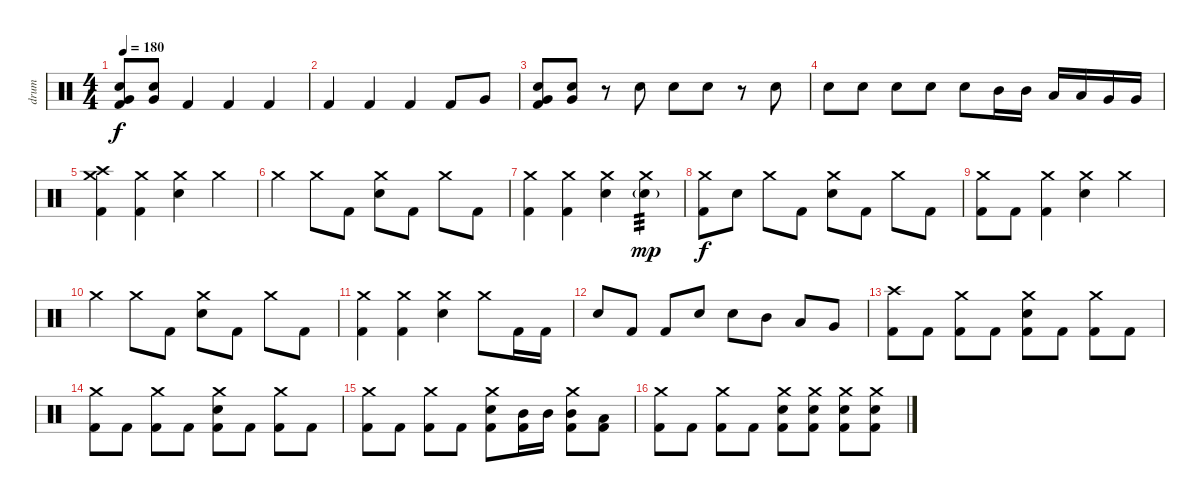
\track ("drum" "drum") {instrument percussion}
\staff {score}
\articulation defaults
\ts (4 4)
\tempo 180
\clef neutral
\ks c
("Snare (hit) 2" "Very Low Tom (hit)" "Kick (hit) 2").8{dy f} ("Snare (hit) 2" "Very Low Tom (hit)").8 "Kick (hit) 2".4 "Kick (hit) 2".4 "Kick (hit) 2".4 |
"Kick (hit) 2".4 "Kick (hit) 2".4 "Kick (hit) 2".4 "Kick (hit) 2".8 "Very Low Tom (hit)".8 |
("Snare (hit) 2" "Very Low Tom (hit)" "Kick (hit) 2").8 ("Snare (hit) 2" "Very Low Tom (hit)").8 r.8 "Snare (hit) 2".8 "Snare (hit) 2".8 "Snare (hit) 2".8 r.8 "Snare (hit) 2".8 |
"Snare (hit) 2".8 "Snare (hit) 2".8 "Snare (hit) 2".8 "Snare (hit) 2".8 "Snare (hit) 2".8 "Mid Tom (hit)".16 "Mid Tom (hit)".16 "Low Tom (hit)".16 "Low Tom (hit)".16 "Very Low Tom (hit)".16 "Very Low Tom (hit)".16 |
("Crash high (hit)" "Crash medium (hit)" "Kick (hit) 2").4 ("Crash medium (hit)" "Kick (hit) 2").4 ("Crash medium (hit)" "Snare (hit) 2").4 "Crash medium (hit)".4 |
"Crash medium (hit)".4 "Crash medium (hit)".8 "Kick (hit) 2".8 ("Crash medium (hit)" "Snare (hit) 2").8 "Kick (hit) 2".8 "Crash medium (hit)".8 "Kick (hit) 2".8 |
("Crash medium (hit)" "Kick (hit) 2").4 ("Crash medium (hit)" "Kick (hit) 2").4 ("Crash medium (hit)" "Snare (hit) 2").4 ("Crash medium (hit)" "Snare (hit) 2"{g}).4{tp 3 dy mp} |
("Crash medium (hit)" "Kick (hit) 2").8{dy f} "Snare (hit) 2".8 "Crash medium (hit)".8 "Kick (hit) 2".8 ("Crash medium (hit)" "Snare (hit) 2").8 "Kick (hit) 2".8 "Crash medium (hit)".8 "Kick (hit) 2".8 |
("Crash medium (hit)" "Kick (hit) 2").8 "Kick (hit) 2".8 ("Crash medium (hit)" "Kick (hit) 2").4 ("Crash medium (hit)" "Snare (hit) 2").4 "Crash medium (hit)".4 |
"Crash medium (hit)".4 "Crash medium (hit)".8 "Kick (hit) 2".8 ("Crash medium (hit)" "Snare (hit) 2").8 "Kick (hit) 2".8 "Crash medium (hit)".8 "Kick (hit) 2".8 |
("Crash medium (hit)" "Kick (hit) 2").4 ("Crash medium (hit)" "Kick (hit) 2").4 ("Crash medium (hit)" "Snare (hit) 2").4 "Crash medium (hit)".8 "Kick (hit) 2".16 "Kick (hit) 2".16 |
"Snare (hit) 2".8 "Kick (hit) 2".8 "Kick (hit) 2".8 "Snare (hit) 2".8 "Snare (hit) 2".8 "Mid Tom (hit)".8 "Low Tom (hit)".8 "Very Low Tom (hit)".8 |
("Crash high (hit)" "Kick (hit) 2").8 "Kick (hit) 2".8 ("Crash medium (hit)" "Kick (hit) 2").8 "Kick (hit) 2".8 ("Crash medium (hit)" "Snare (hit) 2" "Kick (hit) 2").8 "Kick (hit) 2".8 ("Crash medium (hit)" "Kick (hit) 2").8 "Kick (hit) 2".8 |
("Crash medium (hit)" "Kick (hit) 2").8 "Kick (hit) 2".8 ("Crash medium (hit)" "Kick (hit) 2").8 "Kick (hit) 2".8 ("Crash medium (hit)" "Snare (hit) 2" "Kick (hit) 2").8 "Kick (hit) 2".8 ("Crash medium (hit)" "Kick (hit) 2").8 "Kick (hit) 2".8 |
("Crash medium (hit)" "Kick (hit) 2").8 "Kick (hit) 2".8 ("Crash medium (hit)" "Kick (hit) 2").8 "Kick (hit) 2".8 ("Crash medium (hit)" "Snare (hit) 2" "Kick (hit) 2").8 ("Mid Tom (hit)" "Kick (hit) 2").16 "Mid Tom (hit)".16 ("Crash medium (hit)" "Mid Tom (hit)" "Kick (hit) 2").8 ("Low Tom (hit)" "Kick (hit) 2").8 |
("Crash medium (hit)" "Kick (hit) 2").8 "Kick (hit) 2".8 ("Crash medium (hit)" "Kick (hit) 2").8 "Kick (hit) 2".8 ("Crash medium (hit)" "Snare (hit) 2" "Kick (hit) 2").8 ("Crash medium (hit)" "Snare (hit) 2" "Kick (hit) 2").8 ("Crash medium (hit)" "Snare (hit) 2" "Kick (hit) 2").8 ("Crash medium (hit)" "Snare (hit) 2" "Kick (hit) 2").8
